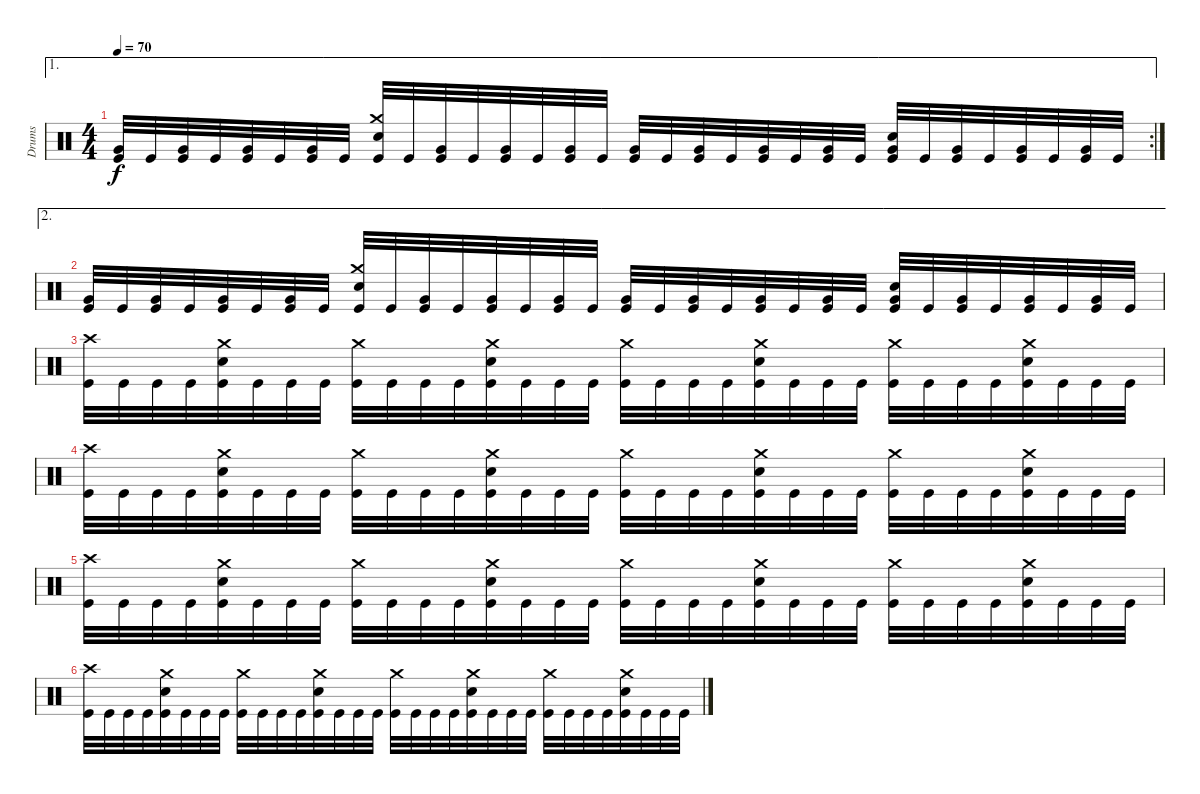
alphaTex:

\track ("Drums" "Drums") {instrument percussion}
\staff {score}
\articulation defaults
\ae 1
\rc 2
\ts (4 4)
\tempo 70
\clef neutral
\ks c
("Very Low Tom (hit)" "Kick (hit)").32{dy f} "Kick (hit)".32 ("Very Low Tom (hit)" "Kick (hit)").32 "Kick (hit)".32 ("Very Low Tom (hit)" "Kick (hit)").32 "Kick (hit)".32 ("Very Low Tom (hit)" "Kick (hit)").32 "Kick (hit)".32 ("Crash medium (hit)" "Electric Snare (hit)" "Kick (hit)").32 "Kick (hit)".32 ("Very Low Tom (hit)" "Kick (hit)").32 "Kick (hit)".32 ("Very Low Tom (hit)" "Kick (hit)").32 "Kick (hit)".32 ("Very Low Tom (hit)" "Kick (hit)").32 "Kick (hit)".32 ("Very Low Tom (hit)" "Kick (hit)").32 "Kick (hit)".32 ("Very Low Tom (hit)" "Kick (hit)").32 "Kick (hit)".32 ("Very Low Tom (hit)" "Kick (hit)").32 "Kick (hit)".32 ("Very Low Tom (hit)" "Kick (hit)").32 "Kick (hit)".32 ("Very Low Tom (hit)" "Electric Snare (hit)" "Kick (hit)").32 "Kick (hit)".32 ("Very Low Tom (hit)" "Kick (hit)").32 "Kick (hit)".32 ("Very Low Tom (hit)" "Kick (hit)").32 "Kick (hit)".32 ("Very Low Tom (hit)" "Kick (hit)").32 "Kick (hit)".32 |
\ae 2
("Very Low Tom (hit)" "Kick (hit)").32 "Kick (hit)".32 ("Very Low Tom (hit)" "Kick (hit)").32 "Kick (hit)".32 ("Very Low Tom (hit)" "Kick (hit)").32 "Kick (hit)".32 ("Very Low Tom (hit)" "Kick (hit)").32 "Kick (hit)".32 ("Crash medium (hit)" "Electric Snare (hit)" "Kick (hit)").32 "Kick (hit)".32 ("Very Low Tom (hit)" "Kick (hit)").32 "Kick (hit)".32 ("Very Low Tom (hit)" "Kick (hit)").32 "Kick (hit)".32 ("Very Low Tom (hit)" "Kick (hit)").32 "Kick (hit)".32 ("Very Low Tom (hit)" "Kick (hit)").32 "Kick (hit)".32 ("Very Low Tom (hit)" "Kick (hit)").32 "Kick (hit)".32 ("Very Low Tom (hit)" "Kick (hit)").32 "Kick (hit)".32 ("Very Low Tom (hit)" "Kick (hit)").32 "Kick (hit)".32 ("Very Low Tom (hit)" "Electric Snare (hit)" "Kick (hit)").32 "Kick (hit)".32 ("Very Low Tom (hit)" "Kick (hit)").32 "Kick (hit)".32 ("Very Low Tom (hit)" "Kick (hit)").32 "Kick (hit)".32 ("Very Low Tom (hit)" "Kick (hit)").32 "Kick (hit)".32 |
("Crash high (hit)" "Kick (hit)").32 "Kick (hit)".32 "Kick (hit)".32 "Kick (hit)".32 ("Crash medium (hit)" "Electric Snare (hit)" "Kick (hit)").32 "Kick (hit)".32 "Kick (hit)".32 "Kick (hit)".32 ("Crash medium (hit)" "Kick (hit)").32 "Kick (hit)".32 "Kick (hit)".32 "Kick (hit)".32 ("Crash medium (hit)" "Electric Snare (hit)" "Kick (hit)").32 "Kick (hit)".32 "Kick (hit)".32 "Kick (hit)".32 ("Crash medium (hit)" "Kick (hit)").32 "Kick (hit)".32 "Kick (hit)".32 "Kick (hit)".32 ("Crash medium (hit)" "Electric Snare (hit)" "Kick (hit)").32 "Kick (hit)".32 "Kick (hit)".32 "Kick (hit)".32 ("Crash medium (hit)" "Kick (hit)").32 "Kick (hit)".32 "Kick (hit)".32 "Kick (hit)".32 ("Crash medium (hit)" "Electric Snare (hit)" "Kick (hit)").32 "Kick (hit)".32 "Kick (hit)".32 "Kick (hit)".32 |
("Crash high (hit)" "Kick (hit)").32 "Kick (hit)".32 "Kick (hit)".32 "Kick (hit)".32 ("Crash medium (hit)" "Electric Snare (hit)" "Kick (hit)").32 "Kick (hit)".32 "Kick (hit)".32 "Kick (hit)".32 ("Crash medium (hit)" "Kick (hit)").32 "Kick (hit)".32 "Kick (hit)".32 "Kick (hit)".32 ("Crash medium (hit)" "Electric Snare (hit)" "Kick (hit)").32 "Kick (hit)".32 "Kick (hit)".32 "Kick (hit)".32 ("Crash medium (hit)" "Kick (hit)").32 "Kick (hit)".32 "Kick (hit)".32 "Kick (hit)".32 ("Crash medium (hit)" "Electric Snare (hit)" "Kick (hit)").32 "Kick (hit)".32 "Kick (hit)".32 "Kick (hit)".32 ("Crash medium (hit)" "Kick (hit)").32 "Kick (hit)".32 "Kick (hit)".32 "Kick (hit)".32 ("Crash medium (hit)" "Electric Snare (hit)" "Kick (hit)").32 "Kick (hit)".32 "Kick (hit)".32 "Kick (hit)".32 |
("Crash high (hit)" "Kick (hit)").32{volume 0} "Kick (hit)".32 "Kick (hit)".32 "Kick (hit)".32 ("Crash medium (hit)" "Electric Snare (hit)" "Kick (hit)").32 "Kick (hit)".32 "Kick (hit)".32 "Kick (hit)".32 ("Crash medium (hit)" "Kick (hit)").32 "Kick (hit)".32 "Kick (hit)".32 "Kick (hit)".32 ("Crash medium (hit)" "Electric Snare (hit)" "Kick (hit)").32 "Kick (hit)".32 "Kick (hit)".32 "Kick (hit)".32 ("Crash medium (hit)" "Kick (hit)").32 "Kick (hit)".32 "Kick (hit)".32 "Kick (hit)".32 ("Crash medium (hit)" "Electric Snare (hit)" "Kick (hit)").32 "Kick (hit)".32 "Kick (hit)".32 "Kick (hit)".32 ("Crash medium (hit)" "Kick (hit)").32 "Kick (hit)".32 "Kick (hit)".32 "Kick (hit)".32 ("Crash medium (hit)" "Electric Snare (hit)" "Kick (hit)").32 "Kick (hit)".32 "Kick (hit)".32 "Kick (hit)".32 |
("Crash high (hit)" "Kick (hit)").32 "Kick (hit)".32 "Kick (hit)".32 "Kick (hit)".32 ("Crash medium (hit)" "Electric Snare (hit)" "Kick (hit)").32 "Kick (hit)".32 "Kick (hit)".32 "Kick (hit)".32 ("Crash medium (hit)" "Kick (hit)").32 "Kick (hit)".32 "Kick (hit)".32 "Kick (hit)".32 ("Crash medium (hit)" "Electric Snare (hit)" "Kick (hit)").32 "Kick (hit)".32 "Kick (hit)".32 "Kick (hit)".32 ("Crash medium (hit)" "Kick (hit)").32 "Kick (hit)".32 "Kick (hit)".32 "Kick (hit)".32 ("Crash medium (hit)" "Electric Snare (hit)" "Kick (hit)").32 "Kick (hit)".32 "Kick (hit)".32 "Kick (hit)".32 ("Crash medium (hit)" "Kick (hit)").32 "Kick (hit)".32 "Kick (hit)".32 "Kick (hit)".32 ("Crash medium (hit)" "Electric Snare (hit)" "Kick (hit)").32 "Kick (hit)".32 "Kick (hit)".32 "Kick (hit)".32
